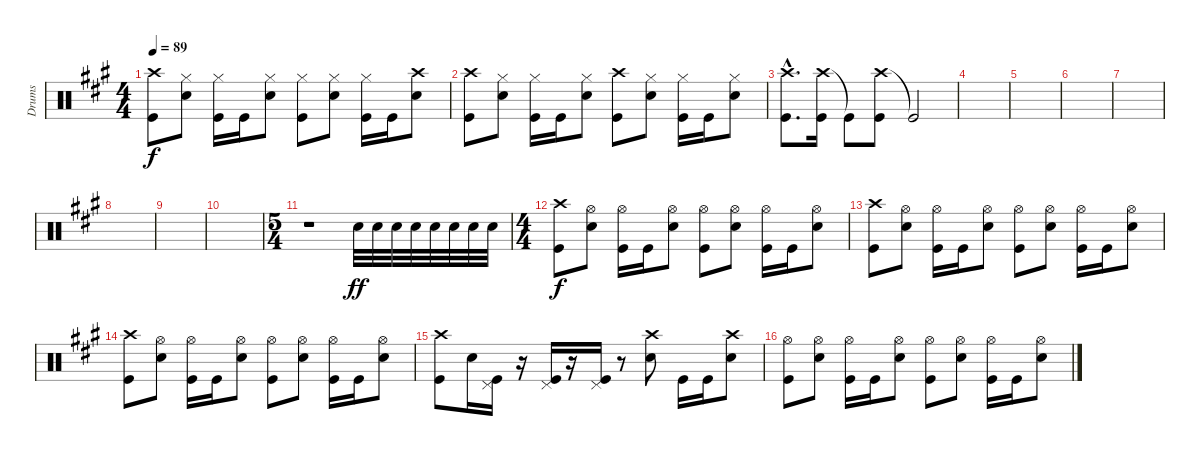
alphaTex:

\track ("Drums" "Drums") {instrument percussion}
\staff {score}
\articulation defaults
\ts (4 4)
\tempo 89
\clef neutral
\ks f#minor
("Crash high (hit)" "Kick (hit)").8{dy f} ("Hi-Hat (closed)" "Snare (hit) 2").8 ("Hi-Hat (closed)" "Kick (hit)").16 "Kick (hit)".16 ("Hi-Hat (closed)" "Snare (hit) 2").8 ("Hi-Hat (closed)" "Kick (hit)").8 ("Hi-Hat (closed)" "Snare (hit) 2").8 ("Hi-Hat (closed)" "Kick (hit)").16 "Kick (hit)".16 ("Crash high (hit)" "Snare (hit) 2").8 |
("Crash high (hit)" "Kick (hit)").8 ("Hi-Hat (closed)" "Snare (hit) 2").8 ("Hi-Hat (closed)" "Kick (hit)").16 "Kick (hit)".16 ("Hi-Hat (closed)" "Snare (hit) 2").8 ("Crash high (hit)" "Kick (hit)").8 ("Hi-Hat (closed)" "Snare (hit) 2").8 ("Hi-Hat (closed)" "Kick (hit)").16 "Kick (hit)".16 ("Hi-Hat (closed)" "Snare (hit) 2").8 |
("Crash high (hit)"{hac} "Kick (hit)"{hac}).8{d} ("Crash high (hit)" "Kick (hit)").16 "Kick (hit)"{t}.8 ("Crash high (hit)" "Kick (hit)").8 "Kick (hit)"{t}.2 |
|
|
|
|
|
|
|
\ts (5 4)
r.1 "Snare (hit) 2".32{dy ff} "Snare (hit) 2".32 "Snare (hit) 2".32 "Snare (hit) 2".32 "Snare (hit) 2".32 "Snare (hit) 2".32 "Snare (hit) 2".32 "Snare (hit) 2".32 |
\ts (4 4)
("Crash high (hit)" "Kick (hit)").8{dy f} ("Hi-Hat (open)" "Snare (hit) 2").8 ("Hi-Hat (open)" "Kick (hit)").16 "Kick (hit)".16 ("Hi-Hat (open)" "Snare (hit) 2").8 ("Hi-Hat (open)" "Kick (hit)").8 ("Hi-Hat (open)" "Snare (hit) 2").8 ("Hi-Hat (open)" "Kick (hit)").16 "Kick (hit)".16 ("Hi-Hat (open)" "Snare (hit) 2").8 |
("Crash high (hit)" "Kick (hit)").8 ("Hi-Hat (open)" "Snare (hit) 2").8 ("Hi-Hat (open)" "Kick (hit)").16 "Kick (hit)".16 ("Hi-Hat (open)" "Snare (hit) 2").8 ("Hi-Hat (open)" "Kick (hit)").8 ("Hi-Hat (open)" "Snare (hit) 2").8 ("Hi-Hat (open)" "Kick (hit)").16 "Kick (hit)".16 ("Hi-Hat (open)" "Snare (hit) 2").8 |
("Crash high (hit)" "Kick (hit)").8 ("Hi-Hat (open)" "Snare (hit) 2").8 ("Hi-Hat (open)" "Kick (hit)").16 "Kick (hit)".16 ("Hi-Hat (open)" "Snare (hit) 2").8 ("Hi-Hat (open)" "Kick (hit)").8 ("Hi-Hat (open)" "Snare (hit) 2").8 ("Hi-Hat (open)" "Kick (hit)").16 "Kick (hit)".16 ("Hi-Hat (open)" "Snare (hit) 2").8 |
("Crash high (hit)" "Kick (hit)").8 "Snare (hit) 2".16 ("Pedal Hi-Hat (hit)" "Kick (hit)").16 r.16 ("Pedal Hi-Hat (hit)" "Kick (hit)").16 r.16 ("Pedal Hi-Hat (hit)" "Kick (hit)").16 r.8 ("Crash high (hit)" "Snare (hit) 2").8 "Kick (hit)".16 "Kick (hit)".16 ("Crash high (hit)" "Snare (hit) 2").8 |
("Hi-Hat (open)" "Kick (hit)").8 ("Hi-Hat (open)" "Snare (hit) 2").8 ("Hi-Hat (open)" "Kick (hit)").16 "Kick (hit)".16 ("Hi-Hat (open)" "Snare (hit) 2").8 ("Hi-Hat (open)" "Kick (hit)").8 ("Hi-Hat (open)" "Snare (hit) 2").8 ("Hi-Hat (open)" "Kick (hit)").16 "Kick (hit)".16 ("Hi-Hat (open)" "Snare (hit) 2").8
